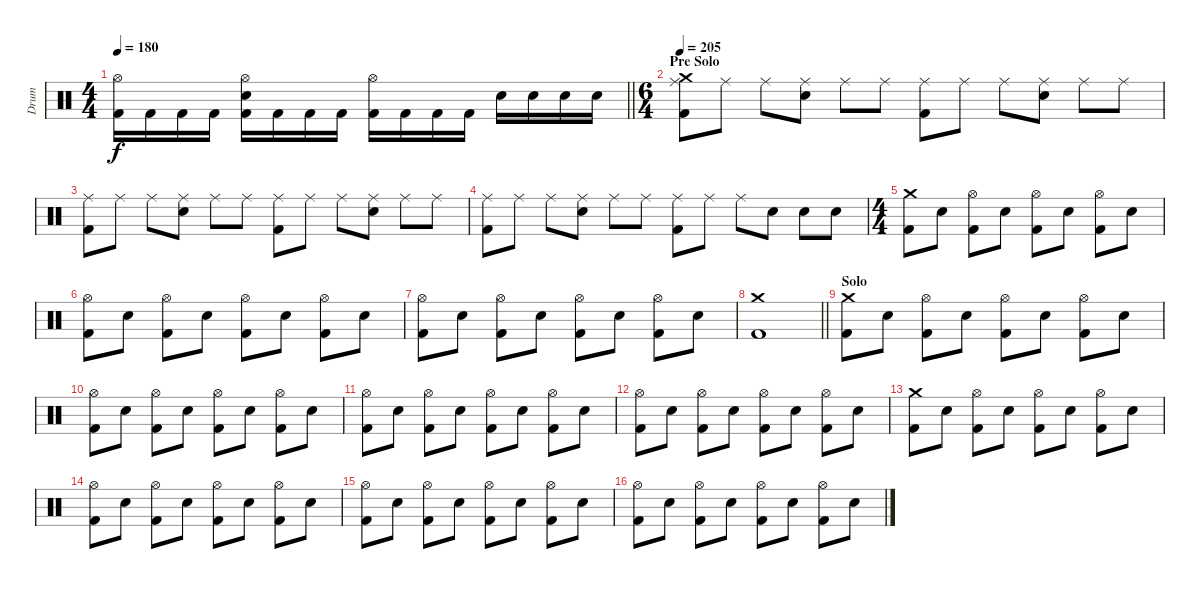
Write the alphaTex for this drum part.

\track ("Drum" "Drum") {instrument percussion}
\staff {score}
\articulation defaults
\ts (4 4)
\tempo 180
\clef neutral
\barLineRight lightlight
\ks c
("Hi-Hat (open)" "Kick (hit) 2").16{dy f} "Kick (hit) 2".16 "Kick (hit) 2".16 "Kick (hit) 2".16 ("Hi-Hat (open)" "Electric Snare (hit)" "Kick (hit) 2").16 "Kick (hit) 2".16 "Kick (hit) 2".16 "Kick (hit) 2".16 ("Hi-Hat (open)" "Kick (hit) 2").16 "Kick (hit) 2".16 "Kick (hit) 2".16 "Kick (hit) 2".16 "Electric Snare (hit)".16 "Electric Snare (hit)".16 "Electric Snare (hit)".16 "Electric Snare (hit)".16 |
\ts (6 4)
\section ("" "Pre Solo")
\tempo 205
("Crash medium (hit)" "Ride (middle)" "Kick (hit) 2").8 "Ride (middle)".8 "Ride (middle)".8 ("Ride (middle)" "Electric Snare (hit)").8 "Ride (middle)".8 "Ride (middle)".8 ("Ride (middle)" "Kick (hit) 2").8 "Ride (middle)".8 "Ride (middle)".8 ("Ride (middle)" "Electric Snare (hit)").8 "Ride (middle)".8 "Ride (middle)".8 |
("Ride (middle)" "Kick (hit) 2").8 "Ride (middle)".8 "Ride (middle)".8 ("Ride (middle)" "Electric Snare (hit)").8 "Ride (middle)".8 "Ride (middle)".8 ("Ride (middle)" "Kick (hit) 2").8 "Ride (middle)".8 "Ride (middle)".8 ("Ride (middle)" "Electric Snare (hit)").8 "Ride (middle)".8 "Ride (middle)".8 |
("Ride (middle)" "Kick (hit) 2").8 "Ride (middle)".8 "Ride (middle)".8 ("Ride (middle)" "Electric Snare (hit)").8 "Ride (middle)".8 "Ride (middle)".8 ("Ride (middle)" "Kick (hit) 2").8 "Ride (middle)".8 "Ride (middle)".8 "Electric Snare (hit)".8 "Electric Snare (hit)".8 "Electric Snare (hit)".8 |
\ts (4 4)
("Crash medium (hit)" "Kick (hit) 2").8 "Electric Snare (hit)".8 ("Hi-Hat (open)" "Kick (hit) 2").8 "Electric Snare (hit)".8 ("Hi-Hat (open)" "Kick (hit) 2").8 "Electric Snare (hit)".8 ("Hi-Hat (open)" "Kick (hit) 2").8 "Electric Snare (hit)".8 |
("Hi-Hat (open)" "Kick (hit) 2").8 "Electric Snare (hit)".8 ("Hi-Hat (open)" "Kick (hit) 2").8 "Electric Snare (hit)".8 ("Hi-Hat (open)" "Kick (hit) 2").8 "Electric Snare (hit)".8 ("Hi-Hat (open)" "Kick (hit) 2").8 "Electric Snare (hit)".8 |
("Hi-Hat (open)" "Kick (hit) 2").8 "Electric Snare (hit)".8 ("Hi-Hat (open)" "Kick (hit) 2").8 "Electric Snare (hit)".8 ("Hi-Hat (open)" "Kick (hit) 2").8 "Electric Snare (hit)".8 ("Hi-Hat (open)" "Kick (hit) 2").8 "Electric Snare (hit)".8 |
\barLineRight lightlight
("Crash medium (hit)" "Kick (hit) 2").1 |
\section ("" "Solo")
("Crash medium (hit)" "Kick (hit) 2").8 "Electric Snare (hit)".8 ("Hi-Hat (open)" "Kick (hit) 2").8 "Electric Snare (hit)".8 ("Hi-Hat (open)" "Kick (hit) 2").8 "Electric Snare (hit)".8 ("Hi-Hat (open)" "Kick (hit) 2").8 "Electric Snare (hit)".8 |
("Hi-Hat (open)" "Kick (hit) 2").8 "Electric Snare (hit)".8 ("Hi-Hat (open)" "Kick (hit) 2").8 "Electric Snare (hit)".8 ("Hi-Hat (open)" "Kick (hit) 2").8 "Electric Snare (hit)".8 ("Hi-Hat (open)" "Kick (hit) 2").8 "Electric Snare (hit)".8 |
("Hi-Hat (open)" "Kick (hit) 2").8 "Electric Snare (hit)".8 ("Hi-Hat (open)" "Kick (hit) 2").8 "Electric Snare (hit)".8 ("Hi-Hat (open)" "Kick (hit) 2").8 "Electric Snare (hit)".8 ("Hi-Hat (open)" "Kick (hit) 2").8 "Electric Snare (hit)".8 |
("Hi-Hat (open)" "Kick (hit) 2").8 "Electric Snare (hit)".8 ("Hi-Hat (open)" "Kick (hit) 2").8 "Electric Snare (hit)".8 ("Hi-Hat (open)" "Kick (hit) 2").8 "Electric Snare (hit)".8 ("Hi-Hat (open)" "Kick (hit) 2").8 "Electric Snare (hit)".8 |
("Crash medium (hit)" "Kick (hit) 2").8 "Electric Snare (hit)".8 ("Hi-Hat (open)" "Kick (hit) 2").8 "Electric Snare (hit)".8 ("Hi-Hat (open)" "Kick (hit) 2").8 "Electric Snare (hit)".8 ("Hi-Hat (open)" "Kick (hit) 2").8 "Electric Snare (hit)".8 |
("Hi-Hat (open)" "Kick (hit) 2").8 "Electric Snare (hit)".8 ("Hi-Hat (open)" "Kick (hit) 2").8 "Electric Snare (hit)".8 ("Hi-Hat (open)" "Kick (hit) 2").8 "Electric Snare (hit)".8 ("Hi-Hat (open)" "Kick (hit) 2").8 "Electric Snare (hit)".8 |
("Hi-Hat (open)" "Kick (hit) 2").8 "Electric Snare (hit)".8 ("Hi-Hat (open)" "Kick (hit) 2").8 "Electric Snare (hit)".8 ("Hi-Hat (open)" "Kick (hit) 2").8 "Electric Snare (hit)".8 ("Hi-Hat (open)" "Kick (hit) 2").8 "Electric Snare (hit)".8 |
("Hi-Hat (open)" "Kick (hit) 2").8 "Electric Snare (hit)".8 ("Hi-Hat (open)" "Kick (hit) 2").8 "Electric Snare (hit)".8 ("Hi-Hat (open)" "Kick (hit) 2").8 "Electric Snare (hit)".8 ("Hi-Hat (open)" "Kick (hit) 2").8 "Electric Snare (hit)".8
